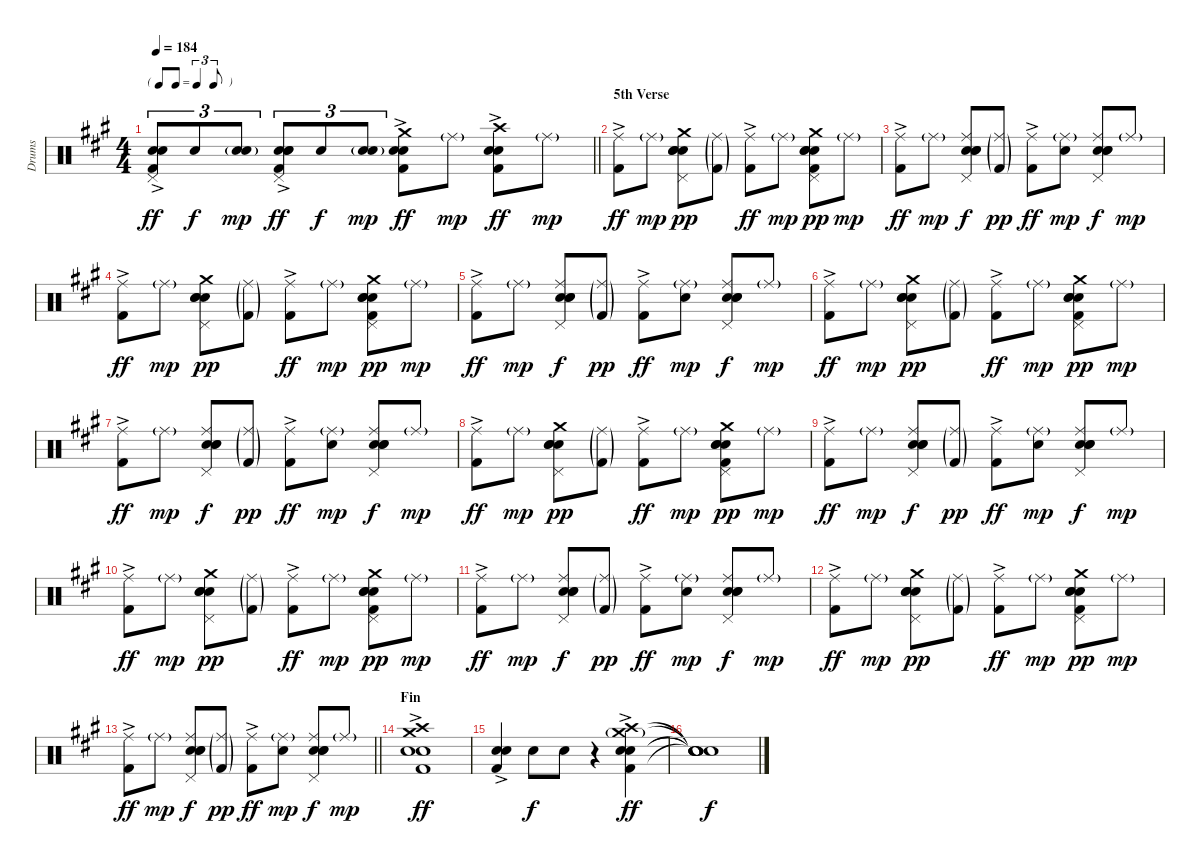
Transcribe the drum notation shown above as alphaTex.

\track ("Drums" "Drums") {instrument percussion}
\staff {score}
\articulation defaults
\ts (4 4)
\tf triplet8th
\tempo 184
\clef neutral
\barLineRight lightlight
\ks a
("Pedal Hi-Hat (hit)" "Electric Snare (hit)"{ac} "Snare (hit) 2" "Kick (hit) 2"{ac}).8{tu (3 2) dy ff} "Snare (hit) 2".8{tu (3 2) dy f} ("Electric Snare (hit)"{g} "Snare (hit) 2").8{tu (3 2) dy mp} ("Pedal Hi-Hat (hit)" "Hand Clap (hit)" "Electric Snare (hit)"{ac} "Snare (hit) 2" "Kick (hit) 2"{ac}).8{tu (3 2) dy ff} "Snare (hit) 2".8{tu (3 2) dy f} ("Electric Snare (hit)"{g} "Snare (hit) 2").8{tu (3 2) dy mp} ("Crash medium (hit)" "Electric Snare (hit)" "Snare (hit) 2" "Kick (hit) 2"{ac}).8{dy ff} "Ride (middle)"{g}.8{dy mp} ("Crash high (hit)" "Electric Snare (hit)" "Snare (hit) 2" "Kick (hit) 2"{ac}).8{dy ff} "Ride (middle)"{g}.8{dy mp} |
\section ("" "5th Verse")
("Ride (middle)" "Kick (hit) 2"{ac}).8{dy ff} "Ride (middle)"{g}.8{dy mp} ("Hand Clap (hit)" "Pedal Hi-Hat (hit)" "Crash medium (hit)" "Electric Snare (hit)" "Snare (hit) 2").8{dy pp} ("Ride (middle)"{g} "Kick (hit) 2"{g}).8 ("Ride (middle)" "Kick (hit) 2"{ac}).8{dy ff} "Ride (middle)"{g}.8{dy mp} ("Hand Clap (hit)" "Pedal Hi-Hat (hit)" "Crash medium (hit)" "Electric Snare (hit)" "Snare (hit) 2" "Kick (hit) 2").8{dy pp} "Ride (middle)"{g}.8{dy mp} |
("Ride (middle)" "Kick (hit) 2"{ac}).8{dy ff} "Ride (middle)"{g}.8{dy mp} ("Ride (middle)" "Pedal Hi-Hat (hit)" "Hand Clap (hit)" "Electric Snare (hit)" "Snare (hit) 2").8{dy f} ("Ride (middle)"{g} "Kick (hit) 2"{g}).8{dy pp} ("Ride (middle)" "Kick (hit) 2"{ac}).8{dy ff} ("Ride (middle)"{g} "Snare (hit) 2").8{dy mp} ("Ride (middle)" "Pedal Hi-Hat (hit)" "Hand Clap (hit)" "Electric Snare (hit)" "Snare (hit) 2").8{dy f} "Ride (middle)"{g}.8{dy mp} |
("Ride (middle)" "Kick (hit) 2"{ac}).8{dy ff} "Ride (middle)"{g}.8{dy mp} ("Hand Clap (hit)" "Pedal Hi-Hat (hit)" "Crash medium (hit)" "Electric Snare (hit)" "Snare (hit) 2").8{dy pp} ("Ride (middle)"{g} "Kick (hit) 2"{g}).8 ("Ride (middle)" "Kick (hit) 2"{ac}).8{dy ff} "Ride (middle)"{g}.8{dy mp} ("Hand Clap (hit)" "Pedal Hi-Hat (hit)" "Crash medium (hit)" "Electric Snare (hit)" "Snare (hit) 2" "Kick (hit) 2").8{dy pp} "Ride (middle)"{g}.8{dy mp} |
("Ride (middle)" "Kick (hit) 2"{ac}).8{dy ff} "Ride (middle)"{g}.8{dy mp} ("Ride (middle)" "Pedal Hi-Hat (hit)" "Hand Clap (hit)" "Electric Snare (hit)" "Snare (hit) 2").8{dy f} ("Ride (middle)"{g} "Kick (hit) 2"{g}).8{dy pp} ("Ride (middle)" "Kick (hit) 2"{ac}).8{dy ff} ("Ride (middle)"{g} "Snare (hit) 2").8{dy mp} ("Ride (middle)" "Pedal Hi-Hat (hit)" "Hand Clap (hit)" "Electric Snare (hit)" "Snare (hit) 2").8{dy f} "Ride (middle)"{g}.8{dy mp} |
("Ride (middle)" "Kick (hit) 2"{ac}).8{dy ff} "Ride (middle)"{g}.8{dy mp} ("Hand Clap (hit)" "Pedal Hi-Hat (hit)" "Crash medium (hit)" "Electric Snare (hit)" "Snare (hit) 2").8{dy pp} ("Ride (middle)"{g} "Kick (hit) 2"{g}).8 ("Ride (middle)" "Kick (hit) 2"{ac}).8{dy ff} "Ride (middle)"{g}.8{dy mp} ("Hand Clap (hit)" "Pedal Hi-Hat (hit)" "Crash medium (hit)" "Electric Snare (hit)" "Snare (hit) 2" "Kick (hit) 2").8{dy pp} "Ride (middle)"{g}.8{dy mp} |
("Ride (middle)" "Kick (hit) 2"{ac}).8{dy ff} "Ride (middle)"{g}.8{dy mp} ("Ride (middle)" "Pedal Hi-Hat (hit)" "Hand Clap (hit)" "Electric Snare (hit)" "Snare (hit) 2").8{dy f} ("Ride (middle)"{g} "Kick (hit) 2"{g}).8{dy pp} ("Ride (middle)" "Kick (hit) 2"{ac}).8{dy ff} ("Ride (middle)"{g} "Snare (hit) 2").8{dy mp} ("Ride (middle)" "Pedal Hi-Hat (hit)" "Hand Clap (hit)" "Electric Snare (hit)" "Snare (hit) 2").8{dy f} "Ride (middle)"{g}.8{dy mp} |
("Ride (middle)" "Kick (hit) 2"{ac}).8{dy ff} "Ride (middle)"{g}.8{dy mp} ("Hand Clap (hit)" "Pedal Hi-Hat (hit)" "Crash medium (hit)" "Electric Snare (hit)" "Snare (hit) 2").8{dy pp} ("Ride (middle)"{g} "Kick (hit) 2"{g}).8 ("Ride (middle)" "Kick (hit) 2"{ac}).8{dy ff} "Ride (middle)"{g}.8{dy mp} ("Hand Clap (hit)" "Pedal Hi-Hat (hit)" "Crash medium (hit)" "Electric Snare (hit)" "Snare (hit) 2" "Kick (hit) 2").8{dy pp} "Ride (middle)"{g}.8{dy mp} |
("Ride (middle)" "Kick (hit) 2"{ac}).8{dy ff} "Ride (middle)"{g}.8{dy mp} ("Ride (middle)" "Pedal Hi-Hat (hit)" "Hand Clap (hit)" "Electric Snare (hit)" "Snare (hit) 2").8{dy f} ("Ride (middle)"{g} "Kick (hit) 2"{g}).8{dy pp} ("Ride (middle)" "Kick (hit) 2"{ac}).8{dy ff} ("Ride (middle)"{g} "Snare (hit) 2").8{dy mp} ("Ride (middle)" "Pedal Hi-Hat (hit)" "Hand Clap (hit)" "Electric Snare (hit)" "Snare (hit) 2").8{dy f} "Ride (middle)"{g}.8{dy mp} |
("Ride (middle)" "Kick (hit) 2"{ac}).8{dy ff} "Ride (middle)"{g}.8{dy mp} ("Hand Clap (hit)" "Pedal Hi-Hat (hit)" "Crash medium (hit)" "Electric Snare (hit)" "Snare (hit) 2").8{dy pp} ("Ride (middle)"{g} "Kick (hit) 2"{g}).8 ("Ride (middle)" "Kick (hit) 2"{ac}).8{dy ff} "Ride (middle)"{g}.8{dy mp} ("Hand Clap (hit)" "Pedal Hi-Hat (hit)" "Crash medium (hit)" "Electric Snare (hit)" "Snare (hit) 2" "Kick (hit) 2").8{dy pp} "Ride (middle)"{g}.8{dy mp} |
("Ride (middle)" "Kick (hit) 2"{ac}).8{dy ff} "Ride (middle)"{g}.8{dy mp} ("Ride (middle)" "Pedal Hi-Hat (hit)" "Hand Clap (hit)" "Electric Snare (hit)" "Snare (hit) 2").8{dy f} ("Ride (middle)"{g} "Kick (hit) 2"{g}).8{dy pp} ("Ride (middle)" "Kick (hit) 2"{ac}).8{dy ff} ("Ride (middle)"{g} "Snare (hit) 2").8{dy mp} ("Ride (middle)" "Pedal Hi-Hat (hit)" "Hand Clap (hit)" "Electric Snare (hit)" "Snare (hit) 2").8{dy f} "Ride (middle)"{g}.8{dy mp} |
("Ride (middle)" "Kick (hit) 2"{ac}).8{dy ff} "Ride (middle)"{g}.8{dy mp} ("Hand Clap (hit)" "Pedal Hi-Hat (hit)" "Crash medium (hit)" "Electric Snare (hit)" "Snare (hit) 2").8{dy pp} ("Ride (middle)"{g} "Kick (hit) 2"{g}).8 ("Ride (middle)" "Kick (hit) 2"{ac}).8{dy ff} "Ride (middle)"{g}.8{dy mp} ("Hand Clap (hit)" "Pedal Hi-Hat (hit)" "Crash medium (hit)" "Electric Snare (hit)" "Snare (hit) 2" "Kick (hit) 2").8{dy pp} "Ride (middle)"{g}.8{dy mp} |
\barLineRight lightlight
("Ride (middle)" "Kick (hit) 2"{ac}).8{dy ff} "Ride (middle)"{g}.8{dy mp} ("Ride (middle)" "Pedal Hi-Hat (hit)" "Hand Clap (hit)" "Electric Snare (hit)" "Snare (hit) 2").8{dy f} ("Ride (middle)"{g} "Kick (hit) 2"{g}).8{dy pp} ("Ride (middle)" "Kick (hit) 2"{ac}).8{dy ff} ("Ride (middle)"{g} "Snare (hit) 2").8{dy mp} ("Ride (middle)" "Pedal Hi-Hat (hit)" "Hand Clap (hit)" "Electric Snare (hit)" "Snare (hit) 2").8{dy f} "Ride (middle)"{g}.8{dy mp} |
\section ("" "Fin")
("Crash high (hit)" "Crash medium (hit)" "Electric Snare (hit)" "Snare (hit) 2" "Kick (hit) 2"{ac}).1{dy ff} |
("Electric Snare (hit)" "Snare (hit) 2" "Kick (hit) 2"{ac}).4 "Snare (hit) 2".8{dy f} "Snare (hit) 2".8 r.4 ("Crash high (hit)" "Crash medium (hit)"{g} "Electric Snare (hit)" "Snare (hit) 2" "Kick (hit) 2"{ac}).4{dy ff} |
("Snare (hit)"{t} "Snare (hit)"{t} "Snare (hit)"{t} "Snare (hit)"{t} "Snare (hit)"{t}).1{dy f}
